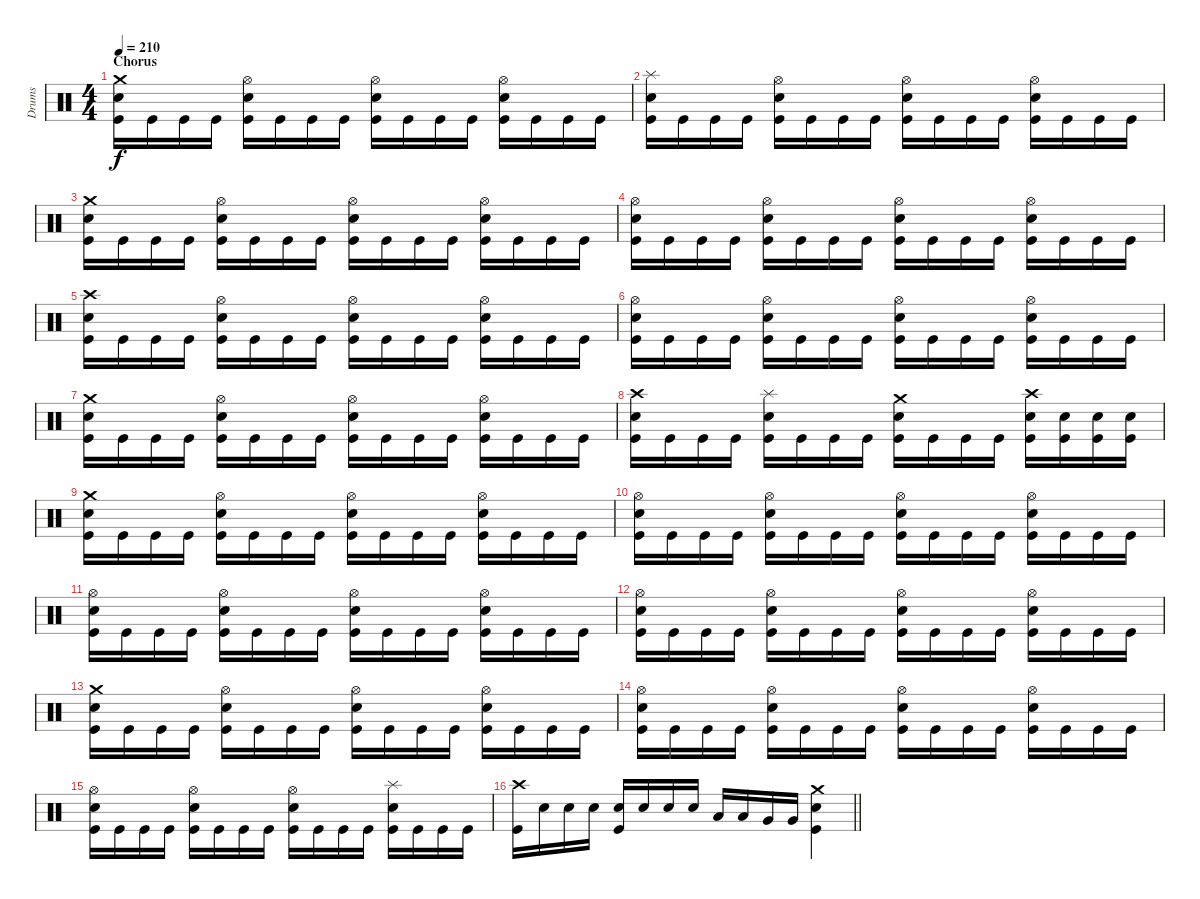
\track ("Drums" "Drums") {instrument percussion}
\staff {score}
\articulation defaults
\ts (4 4)
\section ("" "Chorus")
\tempo 210
\clef neutral
\ks c
("Crash medium (hit)" "Electric Snare (hit)" "Kick (hit)").16{dy f} "Kick (hit)".16 "Kick (hit)".16 "Kick (hit)".16 ("Hi-Hat (open)" "Electric Snare (hit)" "Kick (hit)").16 "Kick (hit)".16 "Kick (hit)".16 "Kick (hit)".16 ("Hi-Hat (open)" "Electric Snare (hit)" "Kick (hit)").16 "Kick (hit)".16 "Kick (hit)".16 "Kick (hit)".16 ("Hi-Hat (open)" "Electric Snare (hit)" "Kick (hit)").16 "Kick (hit)".16 "Kick (hit)".16 "Kick (hit)".16 |
("Splash (hit)" "Electric Snare (hit)" "Kick (hit)").16 "Kick (hit)".16 "Kick (hit)".16 "Kick (hit)".16 ("Hi-Hat (open)" "Electric Snare (hit)" "Kick (hit)").16 "Kick (hit)".16 "Kick (hit)".16 "Kick (hit)".16 ("Hi-Hat (open)" "Electric Snare (hit)" "Kick (hit)").16 "Kick (hit)".16 "Kick (hit)".16 "Kick (hit)".16 ("Hi-Hat (open)" "Electric Snare (hit)" "Kick (hit)").16 "Kick (hit)".16 "Kick (hit)".16 "Kick (hit)".16 |
("Crash medium (hit)" "Electric Snare (hit)" "Kick (hit)").16 "Kick (hit)".16 "Kick (hit)".16 "Kick (hit)".16 ("Hi-Hat (open)" "Electric Snare (hit)" "Kick (hit)").16 "Kick (hit)".16 "Kick (hit)".16 "Kick (hit)".16 ("Hi-Hat (open)" "Electric Snare (hit)" "Kick (hit)").16 "Kick (hit)".16 "Kick (hit)".16 "Kick (hit)".16 ("Hi-Hat (open)" "Electric Snare (hit)" "Kick (hit)").16 "Kick (hit)".16 "Kick (hit)".16 "Kick (hit)".16 |
("Hi-Hat (open)" "Electric Snare (hit)" "Kick (hit)").16 "Kick (hit)".16 "Kick (hit)".16 "Kick (hit)".16 ("Hi-Hat (open)" "Electric Snare (hit)" "Kick (hit)").16 "Kick (hit)".16 "Kick (hit)".16 "Kick (hit)".16 ("Hi-Hat (open)" "Electric Snare (hit)" "Kick (hit)").16 "Kick (hit)".16 "Kick (hit)".16 "Kick (hit)".16 ("Hi-Hat (open)" "Electric Snare (hit)" "Kick (hit)").16 "Kick (hit)".16 "Kick (hit)".16 "Kick (hit)".16 |
("Crash high (hit)" "Electric Snare (hit)" "Kick (hit)").16 "Kick (hit)".16 "Kick (hit)".16 "Kick (hit)".16 ("Hi-Hat (open)" "Electric Snare (hit)" "Kick (hit)").16 "Kick (hit)".16 "Kick (hit)".16 "Kick (hit)".16 ("Hi-Hat (open)" "Electric Snare (hit)" "Kick (hit)").16 "Kick (hit)".16 "Kick (hit)".16 "Kick (hit)".16 ("Hi-Hat (open)" "Electric Snare (hit)" "Kick (hit)").16 "Kick (hit)".16 "Kick (hit)".16 "Kick (hit)".16 |
("Hi-Hat (open)" "Electric Snare (hit)" "Kick (hit)").16 "Kick (hit)".16 "Kick (hit)".16 "Kick (hit)".16 ("Hi-Hat (open)" "Electric Snare (hit)" "Kick (hit)").16 "Kick (hit)".16 "Kick (hit)".16 "Kick (hit)".16 ("Hi-Hat (open)" "Electric Snare (hit)" "Kick (hit)").16 "Kick (hit)".16 "Kick (hit)".16 "Kick (hit)".16 ("Hi-Hat (open)" "Electric Snare (hit)" "Kick (hit)").16 "Kick (hit)".16 "Kick (hit)".16 "Kick (hit)".16 |
("Crash medium (hit)" "Electric Snare (hit)" "Kick (hit)").16 "Kick (hit)".16 "Kick (hit)".16 "Kick (hit)".16 ("Hi-Hat (open)" "Electric Snare (hit)" "Kick (hit)").16 "Kick (hit)".16 "Kick (hit)".16 "Kick (hit)".16 ("Hi-Hat (open)" "Electric Snare (hit)" "Kick (hit)").16 "Kick (hit)".16 "Kick (hit)".16 "Kick (hit)".16 ("Hi-Hat (open)" "Electric Snare (hit)" "Kick (hit)").16 "Kick (hit)".16 "Kick (hit)".16 "Kick (hit)".16 |
("Crash high (hit)" "Electric Snare (hit)" "Kick (hit)").16 "Kick (hit)".16 "Kick (hit)".16 "Kick (hit)".16 ("Splash (hit)" "Electric Snare (hit)" "Kick (hit)").16 "Kick (hit)".16 "Kick (hit)".16 "Kick (hit)".16 ("Crash medium (hit)" "Electric Snare (hit)" "Kick (hit)").16 "Kick (hit)".16 "Kick (hit)".16 "Kick (hit)".16 ("Crash high (hit)" "Electric Snare (hit)" "Kick (hit)").16 ("Electric Snare (hit)" "Kick (hit)").16 ("Electric Snare (hit)" "Kick (hit)").16 ("Electric Snare (hit)" "Kick (hit)").16 |
("Crash medium (hit)" "Electric Snare (hit)" "Kick (hit)").16 "Kick (hit)".16 "Kick (hit)".16 "Kick (hit)".16 ("Hi-Hat (open)" "Electric Snare (hit)" "Kick (hit)").16 "Kick (hit)".16 "Kick (hit)".16 "Kick (hit)".16 ("Hi-Hat (open)" "Electric Snare (hit)" "Kick (hit)").16 "Kick (hit)".16 "Kick (hit)".16 "Kick (hit)".16 ("Hi-Hat (open)" "Electric Snare (hit)" "Kick (hit)").16 "Kick (hit)".16 "Kick (hit)".16 "Kick (hit)".16 |
("Hi-Hat (open)" "Electric Snare (hit)" "Kick (hit)").16 "Kick (hit)".16 "Kick (hit)".16 "Kick (hit)".16 ("Hi-Hat (open)" "Electric Snare (hit)" "Kick (hit)").16 "Kick (hit)".16 "Kick (hit)".16 "Kick (hit)".16 ("Hi-Hat (open)" "Electric Snare (hit)" "Kick (hit)").16 "Kick (hit)".16 "Kick (hit)".16 "Kick (hit)".16 ("Hi-Hat (open)" "Electric Snare (hit)" "Kick (hit)").16 "Kick (hit)".16 "Kick (hit)".16 "Kick (hit)".16 |
("Hi-Hat (open)" "Electric Snare (hit)" "Kick (hit)").16 "Kick (hit)".16 "Kick (hit)".16 "Kick (hit)".16 ("Hi-Hat (open)" "Electric Snare (hit)" "Kick (hit)").16 "Kick (hit)".16 "Kick (hit)".16 "Kick (hit)".16 ("Hi-Hat (open)" "Electric Snare (hit)" "Kick (hit)").16 "Kick (hit)".16 "Kick (hit)".16 "Kick (hit)".16 ("Hi-Hat (open)" "Electric Snare (hit)" "Kick (hit)").16 "Kick (hit)".16 "Kick (hit)".16 "Kick (hit)".16 |
("Hi-Hat (open)" "Electric Snare (hit)" "Kick (hit)").16 "Kick (hit)".16 "Kick (hit)".16 "Kick (hit)".16 ("Hi-Hat (open)" "Electric Snare (hit)" "Kick (hit)").16 "Kick (hit)".16 "Kick (hit)".16 "Kick (hit)".16 ("Hi-Hat (open)" "Electric Snare (hit)" "Kick (hit)").16 "Kick (hit)".16 "Kick (hit)".16 "Kick (hit)".16 ("Hi-Hat (open)" "Electric Snare (hit)" "Kick (hit)").16 "Kick (hit)".16 "Kick (hit)".16 "Kick (hit)".16 |
("Crash medium (hit)" "Electric Snare (hit)" "Kick (hit)").16 "Kick (hit)".16 "Kick (hit)".16 "Kick (hit)".16 ("Hi-Hat (open)" "Electric Snare (hit)" "Kick (hit)").16 "Kick (hit)".16 "Kick (hit)".16 "Kick (hit)".16 ("Hi-Hat (open)" "Electric Snare (hit)" "Kick (hit)").16 "Kick (hit)".16 "Kick (hit)".16 "Kick (hit)".16 ("Hi-Hat (open)" "Electric Snare (hit)" "Kick (hit)").16 "Kick (hit)".16 "Kick (hit)".16 "Kick (hit)".16 |
("Hi-Hat (open)" "Electric Snare (hit)" "Kick (hit)").16 "Kick (hit)".16 "Kick (hit)".16 "Kick (hit)".16 ("Hi-Hat (open)" "Electric Snare (hit)" "Kick (hit)").16 "Kick (hit)".16 "Kick (hit)".16 "Kick (hit)".16 ("Hi-Hat (open)" "Electric Snare (hit)" "Kick (hit)").16 "Kick (hit)".16 "Kick (hit)".16 "Kick (hit)".16 ("Hi-Hat (open)" "Electric Snare (hit)" "Kick (hit)").16 "Kick (hit)".16 "Kick (hit)".16 "Kick (hit)".16 |
("Hi-Hat (open)" "Electric Snare (hit)" "Kick (hit)").16 "Kick (hit)".16 "Kick (hit)".16 "Kick (hit)".16 ("Hi-Hat (open)" "Electric Snare (hit)" "Kick (hit)").16 "Kick (hit)".16 "Kick (hit)".16 "Kick (hit)".16 ("Hi-Hat (open)" "Electric Snare (hit)" "Kick (hit)").16 "Kick (hit)".16 "Kick (hit)".16 "Kick (hit)".16 ("Splash (hit)" "Electric Snare (hit)" "Kick (hit)").16 "Kick (hit)".16 "Kick (hit)".16 "Kick (hit)".16 |
\barLineRight lightlight
("Crash high (hit)" "Kick (hit)").16 "Snare (hit) 2".16 "Snare (hit) 2".16 "Snare (hit) 2".16 ("Snare (hit) 2" "Kick (hit)").16 "Snare (hit) 2".16 "Snare (hit) 2".16 "Snare (hit) 2".16 "Low Tom (hit)".16 "Low Tom (hit)".16 "Very Low Tom (hit)".16 "Very Low Tom (hit)".16 ("Crash medium (hit)" "Electric Snare (hit)" "Kick (hit)").4
